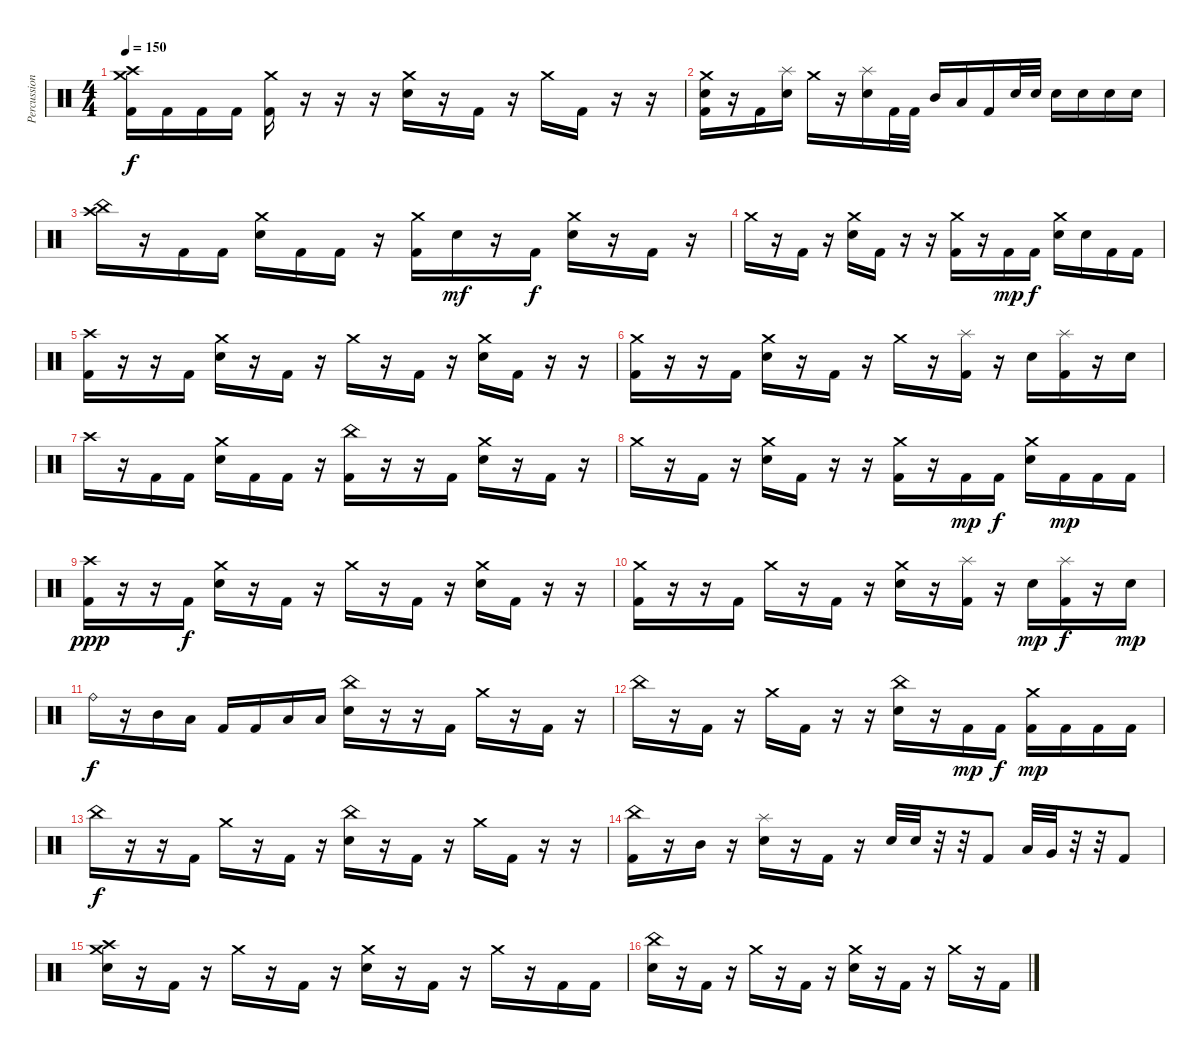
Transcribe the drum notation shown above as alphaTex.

\track ("Percussioni" "Percussion") {instrument percussion}
\staff {score}
\articulation defaults
\ts (4 4)
\tempo 150
\clef neutral
\ks c
("Crash high (hit)" "Kick (hit) 2" "Crash medium (hit)").16{dy f} "Kick (hit) 2".16 "Kick (hit) 2".16 "Kick (hit) 2".16 ("Kick (hit) 2" "Crash medium (hit)").16 r.16 r.16 r.16 ("Snare (hit) 2" "Crash medium (hit)").16 r.16 "Kick (hit) 2".16 r.16 "Crash medium (hit)".16 "Kick (hit) 2".16 r.16 r.16 |
("Snare (hit) 2" "Crash medium (hit)" "Kick (hit) 2").16 r.16 "Kick (hit) 2".16 ("Snare (hit) 2" "Splash (hit)").16 "Crash medium (hit)".16 r.16 ("Snare (hit) 2" "Splash (hit)").16 "Kick (hit) 2".32 "Kick (hit) 2".32 "Mid Tom (hit)".16 "Low Tom (hit)".16 "Kick (hit) 2".16 "Snare (hit) 2".32 "Snare (hit) 2".32 "Snare (hit) 2".16 "Snare (hit) 2".16 "Snare (hit) 2".16 "Snare (hit) 2".16 |
("Crash high (hit)" "China (hit)").16 r.16 "Kick (hit) 2".16 "Kick (hit) 2".16 ("Crash medium (hit)" "Snare (hit) 2").16 "Kick (hit) 2".16 "Kick (hit) 2".16 r.16 ("Crash medium (hit)" "Kick (hit) 2").16 "Snare (hit) 2".16{dy mf} r.16 "Kick (hit) 2".16{dy f} ("Crash medium (hit)" "Snare (hit) 2").16 r.16 "Kick (hit) 2".16 r.16 |
"Crash medium (hit)".16 r.16 "Kick (hit) 2".16 r.16 ("Crash medium (hit)" "Snare (hit) 2").16 "Kick (hit) 2".16 r.16 r.16 ("Crash medium (hit)" "Kick (hit) 2").16 r.16 "Kick (hit) 2".16{dy mp} "Kick (hit) 2".16{dy f} ("Crash medium (hit)" "Snare (hit) 2").16 "Snare (hit) 2".16 "Kick (hit) 2".16 "Kick (hit) 2".16 |
("Crash high (hit)" "Kick (hit) 2").16 r.16 r.16 "Kick (hit) 2".16 ("Crash medium (hit)" "Snare (hit) 2").16 r.16 "Kick (hit) 2".16 r.16 "Crash medium (hit)".16 r.16 "Kick (hit) 2".16 r.16 ("Crash medium (hit)" "Snare (hit) 2").16 "Kick (hit) 2".16 r.16 r.16 |
("Crash medium (hit)" "Kick (hit) 2").16 r.16 r.16 "Kick (hit) 2".16 ("Crash medium (hit)" "Snare (hit) 2").16 r.16 "Kick (hit) 2".16 r.16 "Crash medium (hit)".16 r.16 ("Splash (hit)" "Kick (hit) 2").16 r.16 "Snare (hit) 2".16 ("Splash (hit)" "Kick (hit) 2").16 r.16 "Snare (hit) 2".16 |
"Crash high (hit)".16 r.16 "Kick (hit) 2".16 "Kick (hit) 2".16 ("Crash medium (hit)" "Snare (hit) 2").16 "Kick (hit) 2".16 "Kick (hit) 2".16 r.16 ("China (hit)" "Kick (hit) 2").16 r.16 r.16 "Kick (hit) 2".16 ("Crash medium (hit)" "Snare (hit) 2").16 r.16 "Kick (hit) 2".16 r.16 |
"Crash medium (hit)".16 r.16 "Kick (hit) 2".16 r.16 ("Crash medium (hit)" "Snare (hit) 2").16 "Kick (hit) 2".16 r.16 r.16 ("Crash medium (hit)" "Kick (hit) 2").16 r.16 "Kick (hit) 2".16{dy mp} "Kick (hit) 2".16{dy f} ("Crash medium (hit)" "Snare (hit) 2").16 "Kick (hit) 2".16{dy mp} "Kick (hit) 2".16 "Kick (hit) 2".16 |
("Crash high (hit)" "Kick (hit) 2").16{dy ppp} r.16 r.16 "Kick (hit) 2".16{dy f} ("Crash medium (hit)" "Snare (hit) 2").16 r.16 "Kick (hit) 2".16 r.16 "Crash medium (hit)".16 r.16 "Kick (hit) 2".16 r.16 ("Crash medium (hit)" "Snare (hit) 2").16 "Kick (hit) 2".16 r.16 r.16 |
("Crash medium (hit)" "Kick (hit) 2").16 r.16 r.16 "Kick (hit) 2".16 "Crash medium (hit)".16 r.16 "Kick (hit) 2".16 r.16 ("Crash medium (hit)" "Snare (hit) 2").16 r.16 ("Splash (hit)" "Kick (hit) 2").16 r.16 "Snare (hit) 2".16{dy mp} ("Splash (hit)" "Kick (hit) 2").16{dy f} r.16 "Snare (hit) 2".16{dy mp} |
"Ride (bell)".16{dy f} r.16 "Mid Tom (hit)".16 "Low Tom (hit)".16 "Kick (hit) 2".16 "Kick (hit) 2".16 "Low Tom (hit)".16 "Low Tom (hit)".16 ("China (hit)" "Snare (hit) 2").16 r.16 r.16 "Kick (hit) 2".16 "Crash medium (hit)".16 r.16 "Kick (hit) 2".16 r.16 |
"China (hit)".16 r.16 "Kick (hit) 2".16 r.16 "Crash medium (hit)".16 "Kick (hit) 2".16 r.16 r.16 ("China (hit)" "Snare (hit) 2").16 r.16 "Kick (hit) 2".16{dy mp} "Kick (hit) 2".16{dy f} ("Crash medium (hit)" "Kick (hit) 2").16{dy mp} "Kick (hit) 2".16 "Kick (hit) 2".16 "Kick (hit) 2".16 |
"China (hit)".16{dy f} r.16 r.16 "Kick (hit) 2".16 "Crash medium (hit)".16 r.16 "Kick (hit) 2".16 r.16 ("China (hit)" "Snare (hit) 2").16 r.16 "Kick (hit) 2".16 r.16 "Crash medium (hit)".16 "Kick (hit) 2".16 r.16 r.16 |
("China (hit)" "Kick (hit) 2").16 r.16 "Mid Tom (hit)".16 r.16 ("Splash (hit)" "Snare (hit) 2").16 r.16 "Kick (hit) 2".16 r.16 "Snare (hit) 2".32 "Snare (hit) 2".32 r.32 r.32 "Kick (hit) 2".8 "Low Tom (hit)".32 "Very Low Tom (hit)".32 r.32 r.32 "Kick (hit) 2".8 |
("Crash medium (hit)" "Crash high (hit)" "Snare (hit) 2").16 r.16 "Kick (hit) 2".16 r.16 "Crash medium (hit)".16 r.16 "Kick (hit) 2".16 r.16 ("Crash medium (hit)" "Snare (hit) 2").16 r.16 "Kick (hit) 2".16 r.16 "Crash medium (hit)".16 r.16 "Kick (hit) 2".16 "Kick (hit) 2".16 |
("China (hit)" "Snare (hit) 2").16 r.16 "Kick (hit) 2".16 r.16 "Crash medium (hit)".16 r.16 "Kick (hit) 2".16 r.16 ("Crash medium (hit)" "Snare (hit) 2").16 r.16 "Kick (hit) 2".16 r.16 "Crash medium (hit)".16 r.16 "Kick (hit) 2".16
